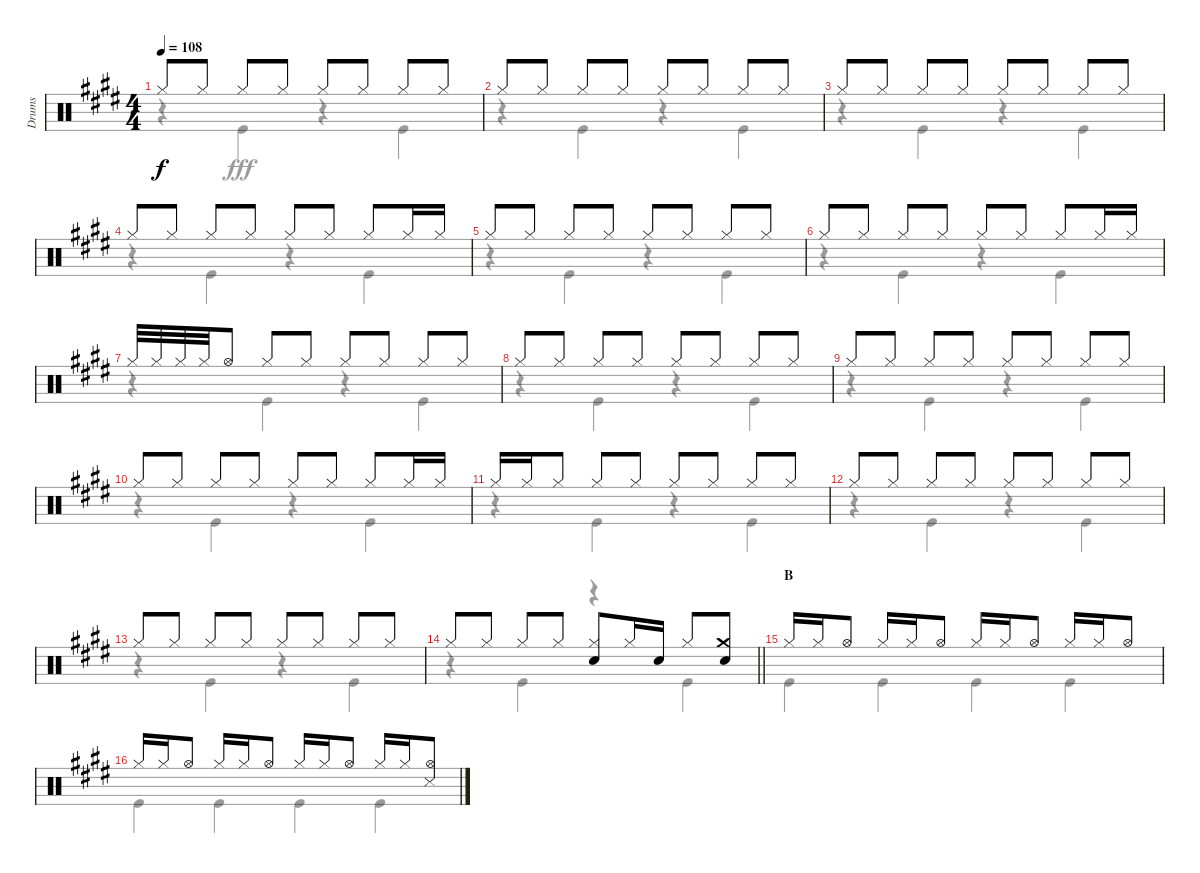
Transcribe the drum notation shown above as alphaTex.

\track ("Drums" "Drums") {instrument percussion}
\staff {score}
\articulation defaults
\voice
\ts (4 4)
\tempo 108
\clef neutral
\ks e "Hi-Hat (closed)".8{dy f} "Hi-Hat (closed)".8 "Hi-Hat (closed)".8 "Hi-Hat (closed)".8 "Hi-Hat (closed)".8 "Hi-Hat (closed)".8 "Hi-Hat (closed)".8 "Hi-Hat (closed)".8
|
"Hi-Hat (closed)".8 "Hi-Hat (closed)".8 "Hi-Hat (closed)".8 "Hi-Hat (closed)".8 "Hi-Hat (closed)".8 "Hi-Hat (closed)".8 "Hi-Hat (closed)".8 "Hi-Hat (closed)".8 |
"Hi-Hat (closed)".8 "Hi-Hat (closed)".8 "Hi-Hat (closed)".8 "Hi-Hat (closed)".8 "Hi-Hat (closed)".8 "Hi-Hat (closed)".8 "Hi-Hat (closed)".8 "Hi-Hat (closed)".8 |
"Hi-Hat (closed)".8 "Hi-Hat (closed)".8 "Hi-Hat (closed)".8 "Hi-Hat (closed)".8 "Hi-Hat (closed)".8 "Hi-Hat (closed)".8 "Hi-Hat (closed)".8 "Hi-Hat (closed)".16 "Hi-Hat (closed)".16 |
"Hi-Hat (closed)".8 "Hi-Hat (closed)".8 "Hi-Hat (closed)".8 "Hi-Hat (closed)".8 "Hi-Hat (closed)".8 "Hi-Hat (closed)".8 "Hi-Hat (closed)".8 "Hi-Hat (closed)".8 |
"Hi-Hat (closed)".8 "Hi-Hat (closed)".8 "Hi-Hat (closed)".8 "Hi-Hat (closed)".8 "Hi-Hat (closed)".8 "Hi-Hat (closed)".8 "Hi-Hat (closed)".8 "Hi-Hat (closed)".16 "Hi-Hat (closed)".16 |
"Hi-Hat (closed)".32 "Hi-Hat (closed)".32 "Hi-Hat (closed)".32 "Hi-Hat (closed)".32 "Hi-Hat (open)".8 "Hi-Hat (closed)".8 "Hi-Hat (closed)".8 "Hi-Hat (closed)".8 "Hi-Hat (closed)".8 "Hi-Hat (closed)".8 "Hi-Hat (closed)".8 |
"Hi-Hat (closed)".8 "Hi-Hat (closed)".8 "Hi-Hat (closed)".8 "Hi-Hat (closed)".8 "Hi-Hat (closed)".8 "Hi-Hat (closed)".8 "Hi-Hat (closed)".8 "Hi-Hat (closed)".8 |
"Hi-Hat (closed)".8 "Hi-Hat (closed)".8 "Hi-Hat (closed)".8 "Hi-Hat (closed)".8 "Hi-Hat (closed)".8 "Hi-Hat (closed)".8 "Hi-Hat (closed)".8 "Hi-Hat (closed)".8 |
"Hi-Hat (closed)".8 "Hi-Hat (closed)".8 "Hi-Hat (closed)".8 "Hi-Hat (closed)".8 "Hi-Hat (closed)".8 "Hi-Hat (closed)".8 "Hi-Hat (closed)".8 "Hi-Hat (closed)".16 "Hi-Hat (closed)".16 |
"Hi-Hat (closed)".16 "Hi-Hat (closed)".16 "Hi-Hat (closed)".8 "Hi-Hat (closed)".8 "Hi-Hat (closed)".8 "Hi-Hat (closed)".8 "Hi-Hat (closed)".8 "Hi-Hat (closed)".8 "Hi-Hat (closed)".8 |
"Hi-Hat (closed)".8 "Hi-Hat (closed)".8 "Hi-Hat (closed)".8 "Hi-Hat (closed)".8 "Hi-Hat (closed)".8 "Hi-Hat (closed)".8 "Hi-Hat (closed)".8 "Hi-Hat (closed)".8 |
"Hi-Hat (closed)".8 "Hi-Hat (closed)".8 "Hi-Hat (closed)".8 "Hi-Hat (closed)".8 "Hi-Hat (closed)".8 "Hi-Hat (closed)".8 "Hi-Hat (closed)".8 "Hi-Hat (closed)".8 |
\barLineRight lightlight "Hi-Hat (closed)".8 "Hi-Hat (closed)".8 "Hi-Hat (closed)".8 "Hi-Hat (closed)".8
("Hi-Hat (closed)" "Snare (hit) 2").8 "Hi-Hat (closed)".16 "Snare (hit) 2".16 "Hi-Hat (closed)".8 ("Crash medium (hit)" "Snare (hit) 2").8 |
\section ("" "B")
"Hi-Hat (closed)".16 "Hi-Hat (closed)".16 "Hi-Hat (open)".8 "Hi-Hat (closed)".16 "Hi-Hat (closed)".16 "Hi-Hat (open)".8 "Hi-Hat (closed)".16 "Hi-Hat (closed)".16 "Hi-Hat (open)".8 "Hi-Hat (closed)".16 "Hi-Hat (closed)".16 "Hi-Hat (open)".8 |
"Hi-Hat (closed)".16 "Hi-Hat (closed)".16 "Hi-Hat (open)".8 "Hi-Hat (closed)".16 "Hi-Hat (closed)".16 "Hi-Hat (open)".8 "Hi-Hat (closed)".16 "Hi-Hat (closed)".16 "Hi-Hat (open)".8 "Hi-Hat (closed)".16 "Hi-Hat (closed)".16 ("Hi-Hat (open)" "Snare (side stick) 3").8
\voice
\clef neutral
\ottava regular
\simile none
\ks e
r.4{dy fff} "Kick (hit)".4 r.4 "Kick (hit)".4 |
r.4 "Kick (hit)".4 r.4 "Kick (hit)".4 |
r.4 "Kick (hit)".4 r.4 "Kick (hit)".4 |
r.4 "Kick (hit)".4 r.4 "Kick (hit)".4 |
r.4 "Kick (hit)".4 r.4 "Kick (hit)".4 |
r.4 "Kick (hit)".4 r.4 "Kick (hit)".4 |
r.4 "Kick (hit)".4 r.4 "Kick (hit)".4 |
r.4 "Kick (hit)".4 r.4 "Kick (hit)".4 |
r.4 "Kick (hit)".4 r.4 "Kick (hit)".4 |
r.4 "Kick (hit)".4 r.4 "Kick (hit)".4 |
r.4 "Kick (hit)".4 r.4 "Kick (hit)".4 |
r.4 "Kick (hit)".4 r.4 "Kick (hit)".4 |
r.4 "Kick (hit)".4 r.4 "Kick (hit)".4 |
\barLineRight lightlight
r.4 "Kick (hit)".4 r.4 "Kick (hit)".4 |
"Kick (hit)".4 "Kick (hit)".4 "Kick (hit)".4 "Kick (hit)".4 |
"Kick (hit)".4 "Kick (hit)".4 "Kick (hit)".4 "Kick (hit)".4
